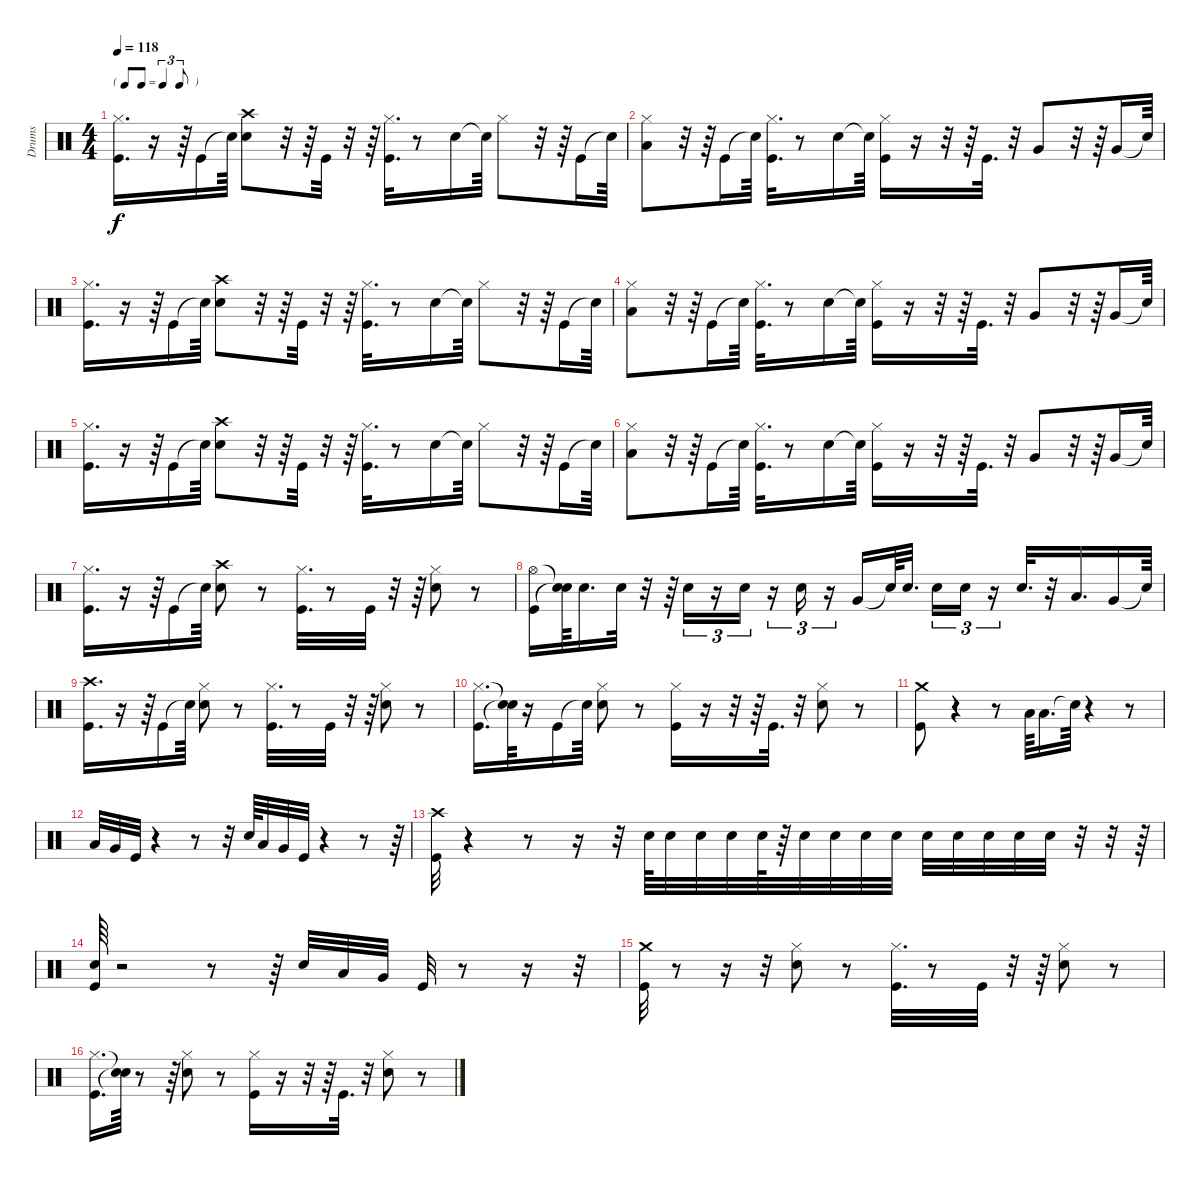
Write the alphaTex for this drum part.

\track ("Drums" "Drums") {instrument percussion}
\staff {score}
\articulation defaults
\ts (4 4)
\tf triplet8th
\tempo 118
\clef neutral
\ks c
("Kick (hit)" "Hi-Hat (closed)").16{d dy f} r.16 r.64 "Kick (hit)".16 "Snare (hit)"{t}.64 ("Snare (hit) 2" "Crash high (hit)").8 r.32 r.64 "Kick (hit)".32 r.32 r.64 ("Kick (hit)" "Hi-Hat (closed)").32{d} r.8 "Snare (hit) 2".16 "Snare (hit)"{t}.64 "Hi-Hat (closed)".8 r.32 r.64 "Kick (hit)".16 "Snare (hit)"{t}.64 |
("Hi-Hat (closed)" "Low Tom (hit)").8 r.32 r.64 "Kick (hit)".16 "Snare (hit)"{t}.64 ("Hi-Hat (closed)" "Kick (hit)").32{d} r.8 "Snare (hit) 2".16 "Snare (hit)"{t}.64 ("Hi-Hat (closed)" "Kick (hit)").16 r.16 r.32 r.64 "Kick (hit)".32{d} r.32 "Very Low Tom (hit)".8 r.32 r.64 "Very Low Tom (hit)".16 "Snare (hit)"{t}.64 |
("Hi-Hat (closed)" "Kick (hit)").16{d} r.16 r.64 "Kick (hit)".16 "Snare (hit)"{t}.64 ("Crash high (hit)" "Snare (hit) 2").8 r.32 r.64 "Kick (hit)".32 r.32 r.64 ("Hi-Hat (closed)" "Kick (hit)").32{d} r.8 "Snare (hit) 2".16 "Snare (hit)"{t}.64 "Hi-Hat (closed)".8 r.32 r.64 "Kick (hit)".16 "Snare (hit)"{t}.64 |
("Low Tom (hit)" "Hi-Hat (closed)").8 r.32 r.64 "Kick (hit)".16 "Snare (hit)"{t}.64 ("Hi-Hat (closed)" "Kick (hit)").32{d} r.8 "Snare (hit) 2".16 "Snare (hit)"{t}.64 ("Kick (hit)" "Hi-Hat (closed)").16 r.16 r.32 r.64 "Kick (hit)".32{d} r.32 "Very Low Tom (hit)".8 r.32 r.64 "Very Low Tom (hit)".16 "Snare (hit)"{t}.64 |
("Kick (hit)" "Hi-Hat (closed)").16{d} r.16 r.64 "Kick (hit)".16 "Snare (hit)"{t}.64 ("Crash high (hit)" "Snare (hit) 2").8 r.32 r.64 "Kick (hit)".32 r.32 r.64 ("Hi-Hat (closed)" "Kick (hit)").32{d} r.8 "Snare (hit) 2".16 "Snare (hit)"{t}.64 "Hi-Hat (closed)".8 r.32 r.64 "Kick (hit)".16 "Snare (hit)"{t}.64 |
("Low Tom (hit)" "Hi-Hat (closed)").8 r.32 r.64 "Kick (hit)".16 "Snare (hit)"{t}.64 ("Kick (hit)" "Hi-Hat (closed)").32{d} r.8 "Snare (hit) 2".16 "Snare (hit)"{t}.64 ("Hi-Hat (closed)" "Kick (hit)").16 r.16 r.32 r.64 "Kick (hit)".32{d} r.32 "Very Low Tom (hit)".8 r.32 r.64 "Very Low Tom (hit)".16 "Snare (hit)"{t}.64 |
("Kick (hit)" "Hi-Hat (closed)").16{d} r.16 r.64 "Kick (hit)".16 "Snare (hit)"{t}.64 ("Crash high (hit)" "Snare (hit) 2").8 r.8 ("Kick (hit)" "Hi-Hat (closed)").32{d} r.8 "Kick (hit)".32 r.32 r.64 ("Hi-Hat (closed)" "Snare (hit) 2").8 r.8 |
("Hi-Hat (open)" "Kick (hit)").16 ("Snare (hit)"{t} "Snare (hit)"{t}).64 "Snare (hit) 2".16{d} "Snare (hit) 2".32 r.32 r.64 "Snare (hit) 2".16{tu (3 2)} r.16{tu (3 2)} "Snare (hit) 2".16{tu (3 2)} r.16{tu (3 2)} "Snare (hit) 2".16{tu (3 2)} r.16{tu (3 2)} "Very Low Tom (hit)".16 "Snare (hit)"{t}.64 "Snare (hit) 2".32{d beam splitsecondary} "Snare (hit) 2".16{tu (3 2)} "Snare (hit) 2".16{tu (3 2)} r.16{tu (3 2)} "Snare (hit) 2".32{d} r.32 "Low Tom (hit)".16{d} "Very Low Tom (hit)".16 "Snare (hit)"{t}.64 |
("Kick (hit)" "Crash high (hit)").16{d} r.16 r.64 "Kick (hit)".16 "Snare (hit)"{t}.64 ("Hi-Hat (closed)" "Snare (hit) 2").8 r.8 ("Hi-Hat (closed)" "Kick (hit)").32{d} r.8 "Kick (hit)".32 r.32 r.64 ("Hi-Hat (closed)" "Snare (hit) 2").8 r.8 |
("Hi-Hat (closed)" "Kick (hit)").16{d} ("Snare (hit)"{t} "Snare (hit)"{t}).64 r.16 "Kick (hit)".16 "Snare (hit)"{t}.64 ("Hi-Hat (closed)" "Snare (hit) 2").8 r.8 ("Kick (hit)" "Hi-Hat (closed)").16 r.16 r.32 r.64 "Kick (hit)".32{d} r.32 ("Hi-Hat (closed)" "Snare (hit) 2").8 r.8 |
("Kick (hit)" "Crash medium (hit)").8 r.4 r.8 "Low Tom (hit)".64 "Low Tom (hit)".16{d} "Snare (hit)"{t}.64 r.4 r.8 |
"Low Tom (hit)".32 "Very Low Tom (hit)".32 "Kick (hit)".32 r.4 r.8 r.32 "Snare (hit) 2".64 "Low Tom (hit)".32 "Very Low Tom (hit)".32 "Kick (hit)".32 r.4 r.8 r.64 |
("Crash high (hit)" "Kick (hit)").32 r.4 r.8 r.16 r.32 "Snare (hit) 2".64 "Snare (hit) 2".32 "Snare (hit) 2".32 "Snare (hit) 2".32 "Snare (hit) 2".64 r.64 "Snare (hit) 2".32 "Snare (hit) 2".32 "Snare (hit) 2".32 "Snare (hit) 2".32 "Snare (hit) 2".32 "Snare (hit) 2".32 "Snare (hit) 2".32 "Snare (hit) 2".32 "Snare (hit) 2".32 r.32 r.32 r.64 |
("Kick (hit)" "Snare (hit) 2").64 r.2 r.8 r.64 "Snare (hit) 2".32 "Low Tom (hit)".32 "Very Low Tom (hit)".32 "Kick (hit)".32 r.8 r.16 r.32 |
("Crash medium (hit)" "Kick (hit)").32 r.8 r.16 r.32 ("Snare (hit) 2" "Hi-Hat (closed)").8 r.8 ("Kick (hit)" "Hi-Hat (closed)").32{d} r.8 "Kick (hit)".32 r.32 r.64 ("Hi-Hat (closed)" "Snare (hit) 2").8 r.8 |
("Hi-Hat (closed)" "Kick (hit)").16{d} ("Snare (hit)"{t} "Snare (hit)"{t}).64 r.8 r.64 ("Snare (hit) 2" "Hi-Hat (closed)").8 r.8 ("Kick (hit)" "Hi-Hat (closed)").16 r.16 r.32 r.64 "Kick (hit)".32{d} r.32 ("Snare (hit) 2" "Hi-Hat (closed)").8 r.8
